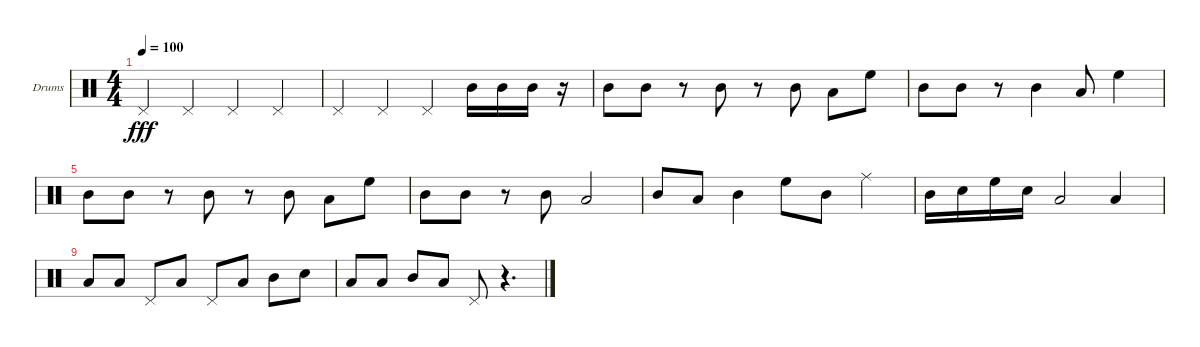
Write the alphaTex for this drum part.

\defaultSystemsLayout 4
\bracketExtendMode groupsimilarinstruments
\firstSystemTrackNameOrientation horizontal
\otherSystemsTrackNameOrientation horizontal
\defaultBarNumberDisplay FirstOfSystem
\track ("Drumkit" "Drums") {instrument percussion}
\staff {score}
\articulation defaults
\ts (4 4)
\tempo 100
\clef neutral
\ks c "Pedal Hi-Hat (hit)".4{dy fff} "Pedal Hi-Hat (hit)".4 "Pedal Hi-Hat (hit)".4 "Pedal Hi-Hat (hit)".4
|
"Pedal Hi-Hat (hit)".4 "Pedal Hi-Hat (hit)".4 "Pedal Hi-Hat (hit)".4 "Mid Tom (hit)".16 "Mid Tom (hit)".16 "Mid Tom (hit)".16 r.16 |
"Mid Tom (hit)".8 "Mid Tom (hit)".8 r.8 "Mid Tom (hit)".8 r.8 "Mid Tom (hit)".8 "Low Tom (hit)".8 "High Floor Tom (hit)".8 |
"Mid Tom (hit)".8 "Mid Tom (hit)".8 r.8 "Mid Tom (hit)".4 "Low Tom (hit)".8 "High Floor Tom (hit)".4 |
"Mid Tom (hit)".8 "Mid Tom (hit)".8 r.8 "Mid Tom (hit)".8 r.8 "Mid Tom (hit)".8 "Low Tom (hit)".8 "High Floor Tom (hit)".8 |
"Mid Tom (hit)".8 "Mid Tom (hit)".8 r.8 "Mid Tom (hit)".8 "Low Tom (hit)".2 |
"Mid Tom (hit)".8 "Low Tom (hit)".8 "Mid Tom (hit)".4 "High Floor Tom (hit)".8 "Mid Tom (hit)".8 "Ride (middle)".4 |
"Mid Tom (hit)".16 "Snare (hit) 2".16 "High Floor Tom (hit)".16 "Snare (hit) 2".16 "Low Tom (hit)".2 "Low Tom (hit)".4 |
"Low Tom (hit)".8 "Low Tom (hit)".8 "Pedal Hi-Hat (hit)".8 "Low Tom (hit)".8 "Pedal Hi-Hat (hit)".8 "Low Tom (hit)".8 "Mid Tom (hit)".8 "Snare (hit) 2".8 |
"Low Tom (hit)".8 "Low Tom (hit)".8 "Mid Tom (hit)".8 "Low Tom (hit)".8 "Pedal Hi-Hat (hit)".8 r.4{d}
